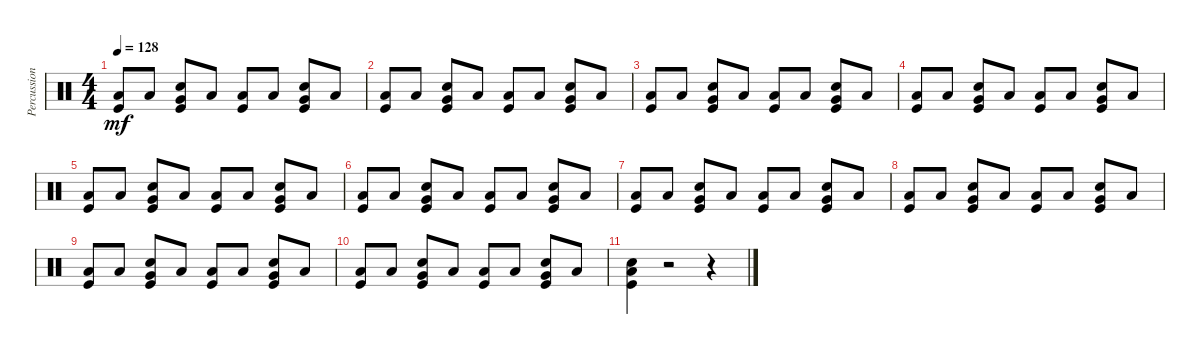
\track ("Percussions" "Percussion") {instrument percussion}
\staff {score}
\articulation defaults
\ts (4 4)
\tempo 128
\clef neutral
\ks c
("Low Floor Tom (hit)" "Kick (hit)").8{dy mf} "Low Floor Tom (hit)".8 ("Very Low Tom (hit)" "Snare (hit) 2" "Kick (hit)").8 "Low Floor Tom (hit)".8 ("Low Floor Tom (hit)" "Kick (hit)").8 "Low Floor Tom (hit)".8 ("Very Low Tom (hit)" "Snare (hit) 2" "Kick (hit)").8 "Low Floor Tom (hit)".8 |
("Low Floor Tom (hit)" "Kick (hit)").8 "Low Floor Tom (hit)".8 ("Very Low Tom (hit)" "Snare (hit) 2" "Kick (hit)").8 "Low Floor Tom (hit)".8 ("Low Floor Tom (hit)" "Kick (hit)").8 "Low Floor Tom (hit)".8 ("Very Low Tom (hit)" "Snare (hit) 2" "Kick (hit)").8 "Low Floor Tom (hit)".8 |
("Low Floor Tom (hit)" "Kick (hit)").8 "Low Floor Tom (hit)".8 ("Very Low Tom (hit)" "Snare (hit) 2" "Kick (hit)").8 "Low Floor Tom (hit)".8 ("Low Floor Tom (hit)" "Kick (hit)").8 "Low Floor Tom (hit)".8 ("Very Low Tom (hit)" "Snare (hit) 2" "Kick (hit)").8 "Low Floor Tom (hit)".8 |
("Low Floor Tom (hit)" "Kick (hit)").8 "Low Floor Tom (hit)".8 ("Very Low Tom (hit)" "Snare (hit) 2" "Kick (hit)").8 "Low Floor Tom (hit)".8 ("Low Floor Tom (hit)" "Kick (hit)").8 "Low Floor Tom (hit)".8 ("Very Low Tom (hit)" "Snare (hit) 2" "Kick (hit)").8 "Low Floor Tom (hit)".8 |
("Low Floor Tom (hit)" "Kick (hit)").8 "Low Floor Tom (hit)".8 ("Very Low Tom (hit)" "Snare (hit) 2" "Kick (hit)").8 "Low Floor Tom (hit)".8 ("Low Floor Tom (hit)" "Kick (hit)").8 "Low Floor Tom (hit)".8 ("Very Low Tom (hit)" "Snare (hit) 2" "Kick (hit)").8 "Low Floor Tom (hit)".8 |
("Low Floor Tom (hit)" "Kick (hit)").8 "Low Floor Tom (hit)".8 ("Very Low Tom (hit)" "Snare (hit) 2" "Kick (hit)").8 "Low Floor Tom (hit)".8 ("Low Floor Tom (hit)" "Kick (hit)").8 "Low Floor Tom (hit)".8 ("Very Low Tom (hit)" "Snare (hit) 2" "Kick (hit)").8 "Low Floor Tom (hit)".8 |
("Low Floor Tom (hit)" "Kick (hit)").8 "Low Floor Tom (hit)".8 ("Very Low Tom (hit)" "Snare (hit) 2" "Kick (hit)").8 "Low Floor Tom (hit)".8 ("Low Floor Tom (hit)" "Kick (hit)").8 "Low Floor Tom (hit)".8 ("Very Low Tom (hit)" "Snare (hit) 2" "Kick (hit)").8 "Low Floor Tom (hit)".8 |
("Low Floor Tom (hit)" "Kick (hit)").8 "Low Floor Tom (hit)".8 ("Very Low Tom (hit)" "Snare (hit) 2" "Kick (hit)").8 "Low Floor Tom (hit)".8 ("Low Floor Tom (hit)" "Kick (hit)").8 "Low Floor Tom (hit)".8 ("Very Low Tom (hit)" "Snare (hit) 2" "Kick (hit)").8 "Low Floor Tom (hit)".8 |
("Low Floor Tom (hit)" "Kick (hit)").8 "Low Floor Tom (hit)".8 ("Very Low Tom (hit)" "Snare (hit) 2" "Kick (hit)").8 "Low Floor Tom (hit)".8 ("Low Floor Tom (hit)" "Kick (hit)").8 "Low Floor Tom (hit)".8 ("Very Low Tom (hit)" "Snare (hit) 2" "Kick (hit)").8 "Low Floor Tom (hit)".8 |
("Low Floor Tom (hit)" "Kick (hit)").8 "Low Floor Tom (hit)".8 ("Very Low Tom (hit)" "Snare (hit) 2" "Kick (hit)").8 "Low Floor Tom (hit)".8 ("Low Floor Tom (hit)" "Kick (hit)").8 "Low Floor Tom (hit)".8 ("Very Low Tom (hit)" "Snare (hit) 2" "Kick (hit)").8 "Low Floor Tom (hit)".8 |
("Low Floor Tom (hit)" "Snare (hit) 2" "Kick (hit)").4 r.2 r.4
